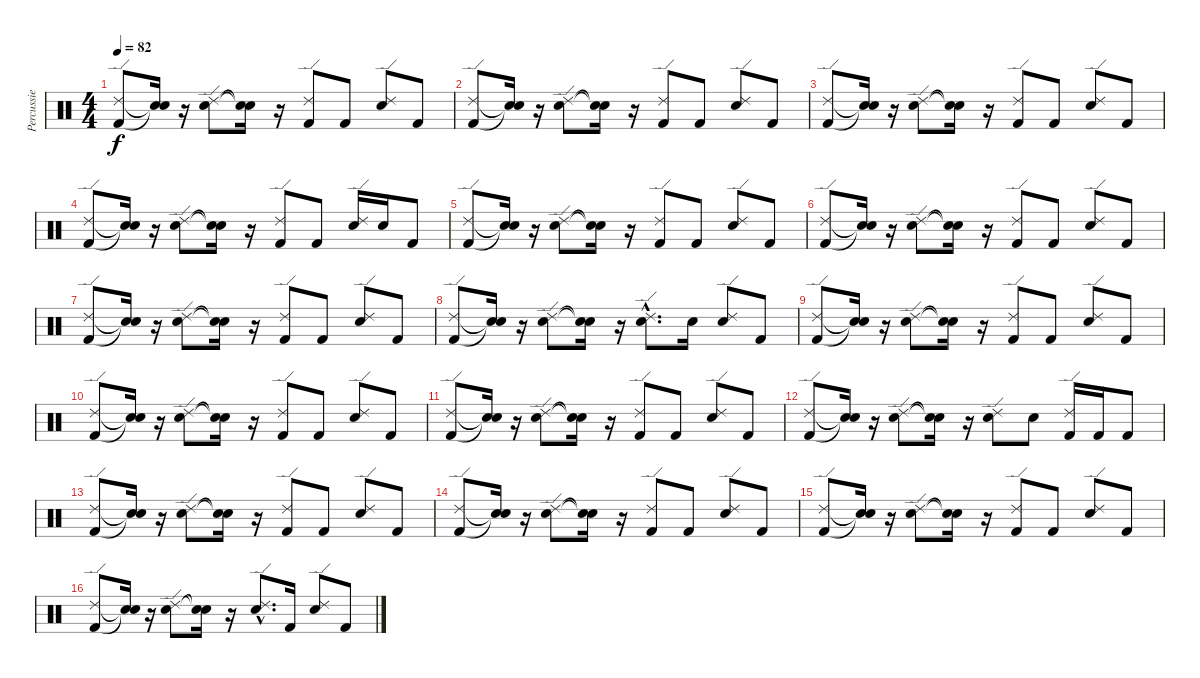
\track ("Percussie" "Percussie") {instrument percussion}
\staff {score}
\articulation defaults
\ts (4 4)
\tempo 82
\clef neutral
\ks c
("Kick (hit) 2" "Ride (edge) 2").8{dy f} ("Snare (hit)"{t} "Snare (hit)"{t}).16 r.16 ("Snare (hit) 2" "Ride (edge) 2").8 ("Snare (hit)"{t} "Snare (hit)"{t}).16 r.16 ("Kick (hit) 2" "Ride (edge) 2").8 "Kick (hit) 2".8 ("Snare (hit) 2" "Ride (edge) 2").8 "Kick (hit) 2".8 |
("Kick (hit) 2" "Ride (edge) 2").8 ("Snare (hit)"{t} "Snare (hit)"{t}).16 r.16 ("Snare (hit) 2" "Ride (edge) 2").8 ("Snare (hit)"{t} "Snare (hit)"{t}).16 r.16 ("Kick (hit) 2" "Ride (edge) 2").8 "Kick (hit) 2".8 ("Snare (hit) 2" "Ride (edge) 2").8 "Kick (hit) 2".8 |
("Kick (hit) 2" "Ride (edge) 2").8 ("Snare (hit)"{t} "Snare (hit)"{t}).16 r.16 ("Snare (hit) 2" "Ride (edge) 2").8 ("Snare (hit)"{t} "Snare (hit)"{t}).16 r.16 ("Kick (hit) 2" "Ride (edge) 2").8 "Kick (hit) 2".8 ("Snare (hit) 2" "Ride (edge) 2").8 "Kick (hit) 2".8 |
("Kick (hit) 2" "Ride (edge) 2").8 ("Snare (hit)"{t} "Snare (hit)"{t}).16 r.16 ("Snare (hit) 2" "Ride (edge) 2").8 ("Snare (hit)"{t} "Snare (hit)"{t}).16 r.16 ("Kick (hit) 2" "Ride (edge) 2").8 "Kick (hit) 2".8 ("Snare (hit) 2" "Ride (edge) 2").16 "Snare (hit) 2".16 "Kick (hit) 2".8 |
("Kick (hit) 2" "Ride (edge) 2").8 ("Snare (hit)"{t} "Snare (hit)"{t}).16 r.16 ("Snare (hit) 2" "Ride (edge) 2").8 ("Snare (hit)"{t} "Snare (hit)"{t}).16 r.16 ("Kick (hit) 2" "Ride (edge) 2").8 "Kick (hit) 2".8 ("Snare (hit) 2" "Ride (edge) 2").8 "Kick (hit) 2".8 |
("Kick (hit) 2" "Ride (edge) 2").8 ("Snare (hit)"{t} "Snare (hit)"{t}).16 r.16 ("Snare (hit) 2" "Ride (edge) 2").8 ("Snare (hit)"{t} "Snare (hit)"{t}).16 r.16 ("Kick (hit) 2" "Ride (edge) 2").8 "Kick (hit) 2".8 ("Snare (hit) 2" "Ride (edge) 2").8 "Kick (hit) 2".8 |
("Kick (hit) 2" "Ride (edge) 2").8 ("Snare (hit)"{t} "Snare (hit)"{t}).16 r.16 ("Snare (hit) 2" "Ride (edge) 2").8 ("Snare (hit)"{t} "Snare (hit)"{t}).16 r.16 ("Kick (hit) 2" "Ride (edge) 2").8 "Kick (hit) 2".8 ("Snare (hit) 2" "Ride (edge) 2").8 "Kick (hit) 2".8 |
("Kick (hit) 2" "Ride (edge) 2").8 ("Snare (hit)"{t} "Snare (hit)"{t}).16 r.16 ("Snare (hit) 2" "Ride (edge) 2").8 ("Snare (hit)"{t} "Snare (hit)"{t}).16 r.16 ("Snare (hit) 2"{hac} "Ride (edge) 2"{hac}).8{d} "Snare (hit) 2".16 ("Snare (hit) 2" "Ride (edge) 2").8 "Kick (hit) 2".8 |
("Kick (hit) 2" "Ride (edge) 2").8 ("Snare (hit)"{t} "Snare (hit)"{t}).16 r.16 ("Snare (hit) 2" "Ride (edge) 2").8 ("Snare (hit)"{t} "Snare (hit)"{t}).16 r.16 ("Kick (hit) 2" "Ride (edge) 2").8 "Kick (hit) 2".8 ("Snare (hit) 2" "Ride (edge) 2").8 "Kick (hit) 2".8 |
("Kick (hit) 2" "Ride (edge) 2").8 ("Snare (hit)"{t} "Snare (hit)"{t}).16 r.16 ("Snare (hit) 2" "Ride (edge) 2").8 ("Snare (hit)"{t} "Snare (hit)"{t}).16 r.16 ("Kick (hit) 2" "Ride (edge) 2").8 "Kick (hit) 2".8 ("Snare (hit) 2" "Ride (edge) 2").8 "Kick (hit) 2".8 |
("Kick (hit) 2" "Ride (edge) 2").8 ("Snare (hit)"{t} "Snare (hit)"{t}).16 r.16 ("Snare (hit) 2" "Ride (edge) 2").8 ("Snare (hit)"{t} "Snare (hit)"{t}).16 r.16 ("Kick (hit) 2" "Ride (edge) 2").8 "Kick (hit) 2".8 ("Snare (hit) 2" "Ride (edge) 2").8 "Kick (hit) 2".8 |
("Kick (hit) 2" "Ride (edge) 2").8 ("Snare (hit)"{t} "Snare (hit)"{t}).16 r.16 ("Snare (hit) 2" "Ride (edge) 2").8 ("Snare (hit)"{t} "Snare (hit)"{t}).16 r.16 ("Snare (hit) 2" "Ride (edge) 2").8 "Snare (hit) 2".8 ("Kick (hit) 2" "Ride (edge) 2").16 "Kick (hit) 2".16 "Kick (hit) 2".8 |
("Kick (hit) 2" "Ride (edge) 2").8 ("Snare (hit)"{t} "Snare (hit)"{t}).16 r.16 ("Snare (hit) 2" "Ride (edge) 2").8 ("Snare (hit)"{t} "Snare (hit)"{t}).16 r.16 ("Kick (hit) 2" "Ride (edge) 2").8 "Kick (hit) 2".8 ("Snare (hit) 2" "Ride (edge) 2").8 "Kick (hit) 2".8 |
("Kick (hit) 2" "Ride (edge) 2").8 ("Snare (hit)"{t} "Snare (hit)"{t}).16 r.16 ("Snare (hit) 2" "Ride (edge) 2").8 ("Snare (hit)"{t} "Snare (hit)"{t}).16 r.16 ("Kick (hit) 2" "Ride (edge) 2").8 "Kick (hit) 2".8 ("Snare (hit) 2" "Ride (edge) 2").8 "Kick (hit) 2".8 |
("Kick (hit) 2" "Ride (edge) 2").8 ("Snare (hit)"{t} "Snare (hit)"{t}).16 r.16 ("Snare (hit) 2" "Ride (edge) 2").8 ("Snare (hit)"{t} "Snare (hit)"{t}).16 r.16 ("Kick (hit) 2" "Ride (edge) 2").8 "Kick (hit) 2".8 ("Snare (hit) 2" "Ride (edge) 2").8 "Kick (hit) 2".8 |
("Kick (hit) 2" "Ride (edge) 2").8 ("Snare (hit)"{t} "Snare (hit)"{t}).16 r.16 ("Snare (hit) 2" "Ride (edge) 2").8 ("Snare (hit)"{t} "Snare (hit)"{t}).16 r.16 ("Snare (hit) 2"{hac} "Ride (edge) 2"{hac}).8{d} "Kick (hit) 2".16 ("Snare (hit) 2" "Ride (edge) 2").8 "Kick (hit) 2".8
